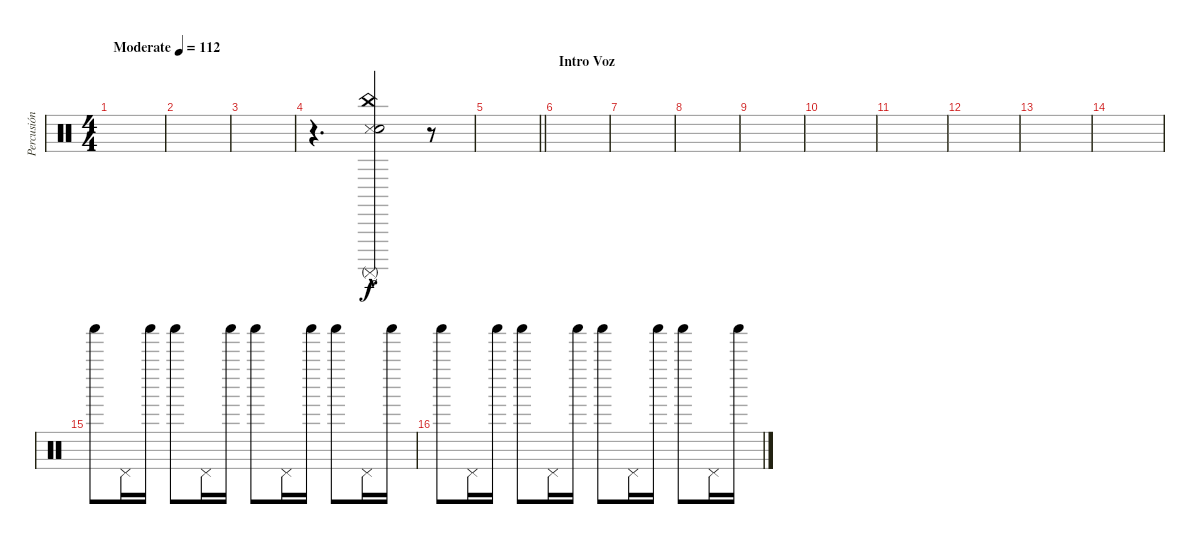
\track ("Percusión" "Percusión") {instrument percussion}
\staff {score}
\articulation defaults
\ts (4 4)
\tempo (112 "Moderate")
\clef neutral
\ks c
|
|
|
r.4{d} ("Surdo (mute)"{hac} "Snare (side stick) 3"{hac} "Electric Snare (hit)"{hac} "China (hit)"{hac}).2 r.8 |
\barLineRight lightlight
|
\section ("" "Intro Voz")
|
|
|
|
|
|
|
|
|
"Shaker (hit)".8{dy f} "Pedal Hi-Hat (hit)".16 "Shaker (hit)".16 "Shaker (hit)".8 "Pedal Hi-Hat (hit)".16 "Shaker (hit)".16 "Shaker (hit)".8 "Pedal Hi-Hat (hit)".16 "Shaker (hit)".16 "Shaker (hit)".8 "Pedal Hi-Hat (hit)".16 "Shaker (hit)".16 |
"Shaker (hit)".8 "Pedal Hi-Hat (hit)".16 "Shaker (hit)".16 "Shaker (hit)".8 "Pedal Hi-Hat (hit)".16 "Shaker (hit)".16 "Shaker (hit)".8 "Pedal Hi-Hat (hit)".16 "Shaker (hit)".16 "Shaker (hit)".8 "Pedal Hi-Hat (hit)".16 "Shaker (hit)".16
